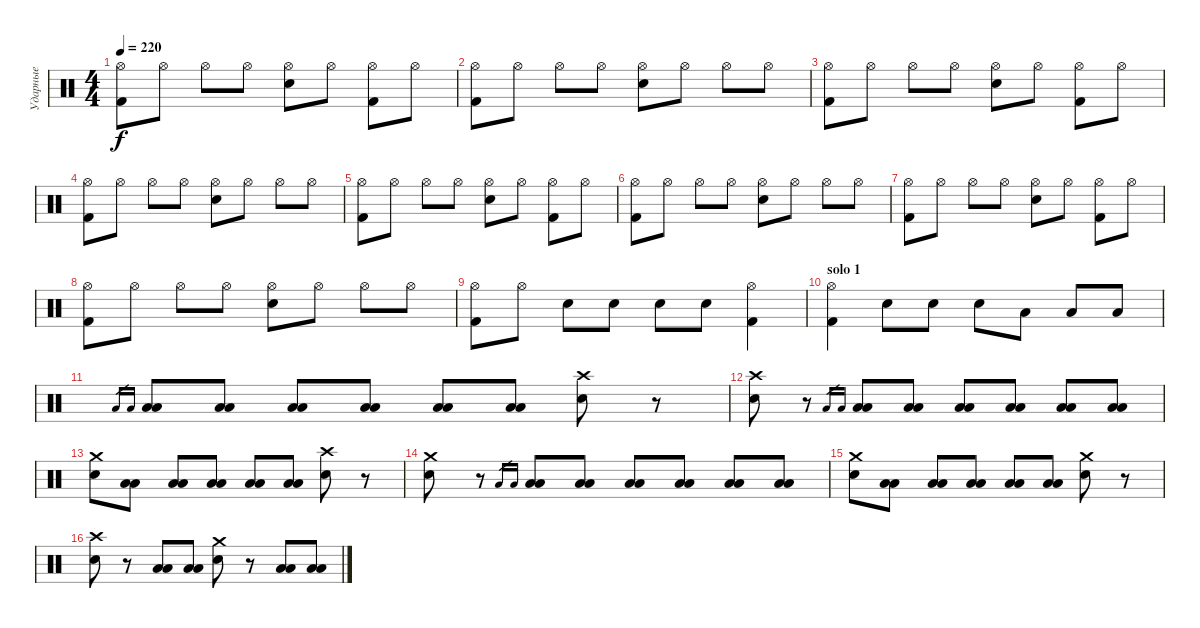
\track ("Ударные" "Ударные") {instrument percussion}
\staff {score}
\articulation defaults
\ts (4 4)
\tempo 220
\clef neutral
\ks c
("Hi-Hat (open)" "Kick (hit) 2").8{dy f} "Hi-Hat (open)".8 "Hi-Hat (open)".8 "Hi-Hat (open)".8 ("Hi-Hat (open)" "Electric Snare (hit)").8 "Hi-Hat (open)".8 ("Hi-Hat (open)" "Kick (hit) 2").8 "Hi-Hat (open)".8 |
("Hi-Hat (open)" "Kick (hit) 2").8 "Hi-Hat (open)".8 "Hi-Hat (open)".8 "Hi-Hat (open)".8 ("Hi-Hat (open)" "Electric Snare (hit)").8 "Hi-Hat (open)".8 "Hi-Hat (open)".8 "Hi-Hat (open)".8 |
("Hi-Hat (open)" "Kick (hit) 2").8 "Hi-Hat (open)".8 "Hi-Hat (open)".8 "Hi-Hat (open)".8 ("Hi-Hat (open)" "Electric Snare (hit)").8 "Hi-Hat (open)".8 ("Hi-Hat (open)" "Kick (hit) 2").8 "Hi-Hat (open)".8 |
("Hi-Hat (open)" "Kick (hit) 2").8 "Hi-Hat (open)".8 "Hi-Hat (open)".8 "Hi-Hat (open)".8 ("Hi-Hat (open)" "Electric Snare (hit)").8 "Hi-Hat (open)".8 "Hi-Hat (open)".8 "Hi-Hat (open)".8 |
("Hi-Hat (open)" "Kick (hit) 2").8 "Hi-Hat (open)".8 "Hi-Hat (open)".8 "Hi-Hat (open)".8 ("Hi-Hat (open)" "Electric Snare (hit)").8 "Hi-Hat (open)".8 ("Hi-Hat (open)" "Kick (hit) 2").8 "Hi-Hat (open)".8 |
("Hi-Hat (open)" "Kick (hit) 2").8 "Hi-Hat (open)".8 "Hi-Hat (open)".8 "Hi-Hat (open)".8 ("Hi-Hat (open)" "Electric Snare (hit)").8 "Hi-Hat (open)".8 "Hi-Hat (open)".8 "Hi-Hat (open)".8 |
("Hi-Hat (open)" "Kick (hit) 2").8 "Hi-Hat (open)".8 "Hi-Hat (open)".8 "Hi-Hat (open)".8 ("Hi-Hat (open)" "Electric Snare (hit)").8 "Hi-Hat (open)".8 ("Hi-Hat (open)" "Kick (hit) 2").8 "Hi-Hat (open)".8 |
("Hi-Hat (open)" "Kick (hit) 2").8 "Hi-Hat (open)".8 "Hi-Hat (open)".8 "Hi-Hat (open)".8 ("Hi-Hat (open)" "Electric Snare (hit)").8 "Hi-Hat (open)".8 "Hi-Hat (open)".8 "Hi-Hat (open)".8 |
("Hi-Hat (open)" "Kick (hit) 2").8 "Hi-Hat (open)".8 "Electric Snare (hit)".8 "Electric Snare (hit)".8 "Electric Snare (hit)".8 "Electric Snare (hit)".8 ("Hi-Hat (open)" "Kick (hit) 2").4 |
\section ("" "solo 1")
("Hi-Hat (open)" "Kick (hit) 2").4 "Electric Snare (hit)".8 "Electric Snare (hit)".8 "Electric Snare (hit)".8 "Low Tom (hit)".8 "Low Tom (hit)".8 "Low Tom (hit)".8 |
"Low Tom (hit)".16{gr} "Low Tom (hit)".16{gr} ("Low Tom (hit)" "Low Tom (hit)").8 ("Low Tom (hit)" "Low Tom (hit)").8 ("Low Tom (hit)" "Low Tom (hit)").8 ("Low Tom (hit)" "Low Tom (hit)").8 ("Low Tom (hit)" "Low Tom (hit)").8 ("Low Tom (hit)" "Low Tom (hit)").8 ("Crash high (hit)" "Electric Snare (hit)").8 r.8 |
("Crash high (hit)" "Electric Snare (hit)").8 r.8 "Low Tom (hit)".16{gr} "Low Tom (hit)".16{gr} ("Low Tom (hit)" "Low Tom (hit)").8 ("Low Tom (hit)" "Low Tom (hit)").8 ("Low Tom (hit)" "Low Tom (hit)").8 ("Low Tom (hit)" "Low Tom (hit)").8 ("Low Tom (hit)" "Low Tom (hit)").8 ("Low Tom (hit)" "Low Tom (hit)").8 |
("Crash medium (hit)" "Electric Snare (hit)").8 ("Low Tom (hit)" "Low Tom (hit)").8 ("Low Tom (hit)" "Low Tom (hit)").8 ("Low Tom (hit)" "Low Tom (hit)").8 ("Low Tom (hit)" "Low Tom (hit)").8 ("Low Tom (hit)" "Low Tom (hit)").8 ("Crash high (hit)" "Electric Snare (hit)").8 r.8 |
("Crash medium (hit)" "Electric Snare (hit)").8 r.8 "Low Tom (hit)".16{gr} "Low Tom (hit)".16{gr} ("Low Tom (hit)" "Low Tom (hit)").8 ("Low Tom (hit)" "Low Tom (hit)").8 ("Low Tom (hit)" "Low Tom (hit)").8 ("Low Tom (hit)" "Low Tom (hit)").8 ("Low Tom (hit)" "Low Tom (hit)").8 ("Low Tom (hit)" "Low Tom (hit)").8 |
("Crash medium (hit)" "Electric Snare (hit)").8 ("Low Tom (hit)" "Low Tom (hit)").8 ("Low Tom (hit)" "Low Tom (hit)").8 ("Low Tom (hit)" "Low Tom (hit)").8 ("Low Tom (hit)" "Low Tom (hit)").8 ("Low Tom (hit)" "Low Tom (hit)").8 ("Crash medium (hit)" "Electric Snare (hit)").8 r.8 |
("Crash high (hit)" "Electric Snare (hit)").8 r.8 ("Low Tom (hit)" "Low Tom (hit)").8 ("Low Tom (hit)" "Low Tom (hit)").8 ("Crash medium (hit)" "Electric Snare (hit)").8 r.8 ("Low Tom (hit)" "Low Tom (hit)").8 ("Low Tom (hit)" "Low Tom (hit)").8
